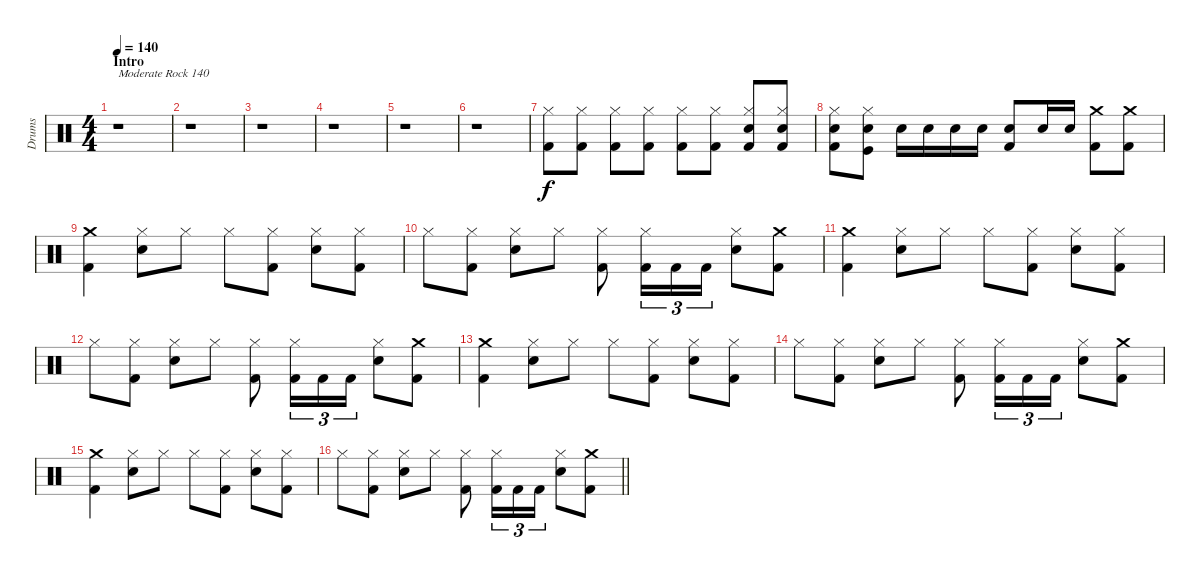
\track ("Drums" "Drums") {instrument percussion}
\staff {score}
\articulation defaults
\ts (4 4)
\section ("" "Intro")
\tempo 140
\clef neutral
\ks c
r.1{txt "Moderate Rock 140" dy f} |
r.1 |
r.1 |
r.1 |
r.1 |
r.1 |
("Kick (hit) 2" "Hi-Hat (closed)").8 ("Kick (hit) 2" "Hi-Hat (closed)").8 ("Kick (hit) 2" "Hi-Hat (closed)").8 ("Kick (hit) 2" "Hi-Hat (closed)").8 ("Kick (hit) 2" "Hi-Hat (closed)").8 ("Kick (hit) 2" "Hi-Hat (closed)").8 ("Kick (hit) 2" "Snare (hit) 2" "Hi-Hat (closed)").8 ("Kick (hit) 2" "Snare (hit) 2" "Hi-Hat (closed)").8 |
("Kick (hit) 2" "Snare (hit) 2" "Hi-Hat (closed)").8 ("Kick (hit)" "Snare (hit) 2" "Hi-Hat (closed)").8 "Snare (hit) 2".16 "Snare (hit) 2".16 "Snare (hit) 2".16 "Snare (hit) 2".16 ("Kick (hit) 2" "Snare (hit) 2").8 "Snare (hit) 2".16 "Snare (hit) 2".16 ("Kick (hit) 2" "Crash medium (hit)").8 ("Kick (hit) 2" "Crash medium (hit)").8 |
("Crash medium (hit)" "Kick (hit) 2").4 ("Snare (hit) 2" "Hi-Hat (closed)").8 "Hi-Hat (closed)".8 "Hi-Hat (closed)".8 ("Kick (hit) 2" "Hi-Hat (closed)").8 ("Snare (hit) 2" "Hi-Hat (closed)").8 ("Kick (hit) 2" "Hi-Hat (closed)").8 |
"Hi-Hat (closed)".8 ("Kick (hit) 2" "Hi-Hat (closed)").8 ("Snare (hit) 2" "Hi-Hat (closed)").8 "Hi-Hat (closed)".8 ("Kick (hit) 2" "Hi-Hat (closed)").8 ("Kick (hit) 2" "Hi-Hat (closed)").16{tu (3 2)} "Kick (hit) 2".16{tu (3 2)} "Kick (hit) 2".16{tu (3 2)} ("Snare (hit) 2" "Hi-Hat (closed)").8 ("Kick (hit) 2" "Crash medium (hit)").8 |
("Kick (hit) 2" "Crash medium (hit)").4 ("Snare (hit) 2" "Hi-Hat (closed)").8 "Hi-Hat (closed)".8 "Hi-Hat (closed)".8 ("Kick (hit) 2" "Hi-Hat (closed)").8 ("Snare (hit) 2" "Hi-Hat (closed)").8 ("Kick (hit) 2" "Hi-Hat (closed)").8 |
"Hi-Hat (closed)".8 ("Kick (hit) 2" "Hi-Hat (closed)").8 ("Snare (hit) 2" "Hi-Hat (closed)").8 "Hi-Hat (closed)".8 ("Kick (hit) 2" "Hi-Hat (closed)").8 ("Kick (hit) 2" "Hi-Hat (closed)").16{tu (3 2)} "Kick (hit) 2".16{tu (3 2)} "Kick (hit) 2".16{tu (3 2)} ("Snare (hit) 2" "Hi-Hat (closed)").8 ("Kick (hit) 2" "Crash medium (hit)").8 |
("Kick (hit) 2" "Crash medium (hit)").4 ("Snare (hit) 2" "Hi-Hat (closed)").8 "Hi-Hat (closed)".8 "Hi-Hat (closed)".8 ("Kick (hit) 2" "Hi-Hat (closed)").8 ("Snare (hit) 2" "Hi-Hat (closed)").8 ("Kick (hit) 2" "Hi-Hat (closed)").8 |
"Hi-Hat (closed)".8 ("Kick (hit) 2" "Hi-Hat (closed)").8 ("Snare (hit) 2" "Hi-Hat (closed)").8 "Hi-Hat (closed)".8 ("Kick (hit) 2" "Hi-Hat (closed)").8 ("Kick (hit) 2" "Hi-Hat (closed)").16{tu (3 2)} "Kick (hit) 2".16{tu (3 2)} "Kick (hit) 2".16{tu (3 2)} ("Snare (hit) 2" "Hi-Hat (closed)").8 ("Kick (hit) 2" "Crash medium (hit)").8 |
("Kick (hit) 2" "Crash medium (hit)").4 ("Snare (hit) 2" "Hi-Hat (closed)").8 "Hi-Hat (closed)".8 "Hi-Hat (closed)".8 ("Kick (hit) 2" "Hi-Hat (closed)").8 ("Snare (hit) 2" "Hi-Hat (closed)").8 ("Kick (hit) 2" "Hi-Hat (closed)").8 |
\barLineRight lightlight "Hi-Hat (closed)".8
("Kick (hit) 2" "Hi-Hat (closed)").8 ("Snare (hit) 2" "Hi-Hat (closed)").8 "Hi-Hat (closed)".8 ("Kick (hit) 2" "Hi-Hat (closed)").8 ("Kick (hit) 2" "Hi-Hat (closed)").16{tu (3 2)} "Kick (hit) 2".16{tu (3 2)} "Kick (hit) 2".16{tu (3 2)} ("Snare (hit) 2" "Hi-Hat (closed)").8 ("Kick (hit) 2" "Crash medium (hit)").8
